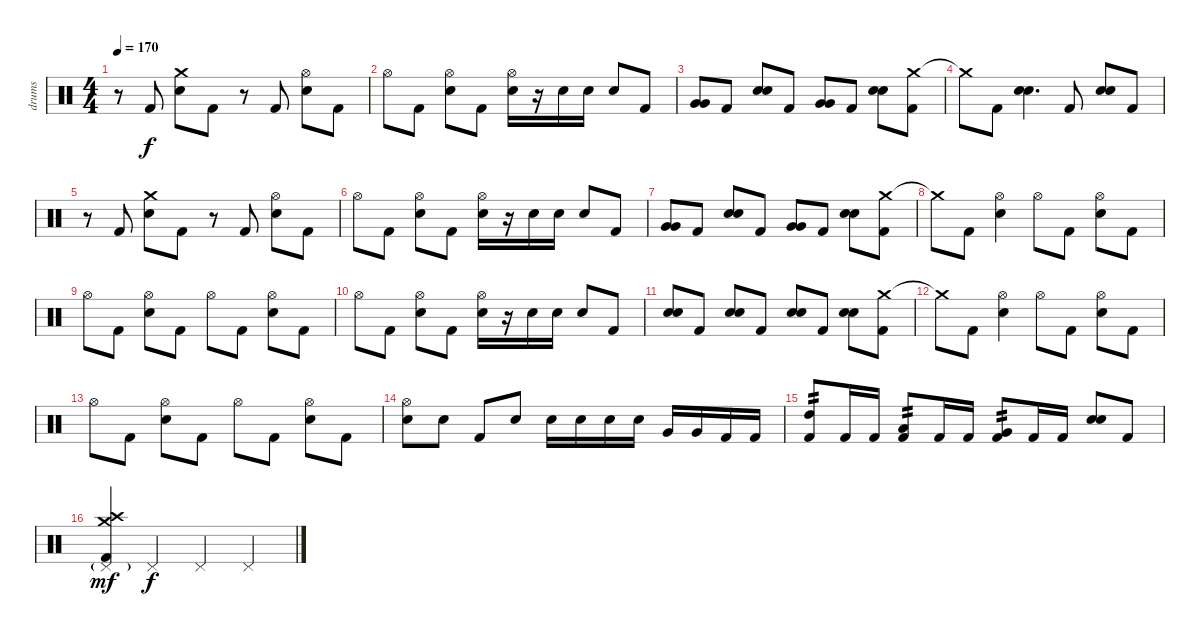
\track ("drums" "drums") {instrument percussion}
\staff {score}
\articulation defaults
\ts (4 4)
\tempo 170
\clef neutral
\ks c
r.8{dy f} "Kick (hit) 2".8 ("Crash medium (hit)" "Electric Snare (hit)").8 "Kick (hit) 2".8 r.8 "Kick (hit) 2".8 ("Hi-Hat (open)" "Electric Snare (hit)").8 "Kick (hit) 2".8 |
"Hi-Hat (open)".8 "Kick (hit) 2".8 ("Hi-Hat (open)" "Electric Snare (hit)").8 "Kick (hit) 2".8 ("Hi-Hat (open)" "Electric Snare (hit)").16 r.16 "Electric Snare (hit)".16 "Electric Snare (hit)".16 "Electric Snare (hit)".8 "Kick (hit) 2".8 |
("Very Low Tom (hit)" "Very Low Tom (hit)").8 "Kick (hit) 2".8 ("Electric Snare (hit)" "Electric Snare (hit)").8 "Kick (hit) 2".8 ("Very Low Tom (hit)" "Very Low Tom (hit)").8 "Kick (hit) 2".8 ("Electric Snare (hit)" "Electric Snare (hit)").8 ("Crash medium (hit)" "Kick (hit) 2").8 |
"Crash medium (hit)"{t}.8 "Kick (hit) 2".8 ("Electric Snare (hit)" "Electric Snare (hit)").4{d} "Kick (hit) 2".8 ("Electric Snare (hit)" "Electric Snare (hit)").8 "Kick (hit) 2".8 |
r.8 "Kick (hit) 2".8 ("Crash medium (hit)" "Electric Snare (hit)").8 "Kick (hit) 2".8 r.8 "Kick (hit) 2".8 ("Hi-Hat (open)" "Electric Snare (hit)").8 "Kick (hit) 2".8 |
"Hi-Hat (open)".8 "Kick (hit) 2".8 ("Hi-Hat (open)" "Electric Snare (hit)").8 "Kick (hit) 2".8 ("Hi-Hat (open)" "Electric Snare (hit)").16 r.16 "Electric Snare (hit)".16 "Electric Snare (hit)".16 "Electric Snare (hit)".8 "Kick (hit) 2".8 |
("Very Low Tom (hit)" "Very Low Tom (hit)").8 "Kick (hit) 2".8 ("Electric Snare (hit)" "Electric Snare (hit)").8 "Kick (hit) 2".8 ("Very Low Tom (hit)" "Very Low Tom (hit)").8 "Kick (hit) 2".8 ("Electric Snare (hit)" "Electric Snare (hit)").8 ("Crash medium (hit)" "Kick (hit) 2").8 |
"Crash medium (hit)"{t}.8 "Kick (hit) 2".8 ("Hi-Hat (open)" "Electric Snare (hit)").4 "Hi-Hat (open)".8 "Kick (hit) 2".8 ("Hi-Hat (open)" "Electric Snare (hit)").8 "Kick (hit) 2".8 |
"Hi-Hat (open)".8 "Kick (hit) 2".8 ("Hi-Hat (open)" "Electric Snare (hit)").8 "Kick (hit) 2".8 "Hi-Hat (open)".8 "Kick (hit) 2".8 ("Hi-Hat (open)" "Electric Snare (hit)").8 "Kick (hit) 2".8 |
"Hi-Hat (open)".8 "Kick (hit) 2".8 ("Hi-Hat (open)" "Electric Snare (hit)").8 "Kick (hit) 2".8 ("Hi-Hat (open)" "Electric Snare (hit)").16 r.16 "Electric Snare (hit)".16 "Electric Snare (hit)".16 "Electric Snare (hit)".8 "Kick (hit) 2".8 |
("Electric Snare (hit)" "Electric Snare (hit)").8 "Kick (hit) 2".8 ("Electric Snare (hit)" "Electric Snare (hit)").8 "Kick (hit) 2".8 ("Electric Snare (hit)" "Electric Snare (hit)").8 "Kick (hit) 2".8 ("Electric Snare (hit)" "Electric Snare (hit)").8 ("Crash medium (hit)" "Kick (hit) 2").8 |
"Crash medium (hit)"{t}.8 "Kick (hit) 2".8 ("Hi-Hat (open)" "Electric Snare (hit)").4 "Hi-Hat (open)".8 "Kick (hit) 2".8 ("Hi-Hat (open)" "Electric Snare (hit)").8 "Kick (hit) 2".8 |
"Hi-Hat (open)".8 "Kick (hit) 2".8 ("Hi-Hat (open)" "Electric Snare (hit)").8 "Kick (hit) 2".8 "Hi-Hat (open)".8 "Kick (hit) 2".8 ("Hi-Hat (open)" "Electric Snare (hit)").8 "Kick (hit) 2".8 |
("Hi-Hat (open)" "Electric Snare (hit)").8 "Electric Snare (hit)".8 "Kick (hit) 2".8 "Electric Snare (hit)".8 "Electric Snare (hit)".16 "Electric Snare (hit)".16 "Electric Snare (hit)".16 "Electric Snare (hit)".16 "Very Low Tom (hit)".16 "Very Low Tom (hit)".16 "Kick (hit) 2".16 "Kick (hit) 2".16 |
("High Tom (hit)" "Kick (hit) 2").8{tp 2} "Kick (hit) 2".16 "Kick (hit) 2".16 ("Low Tom (hit)" "Kick (hit) 2").8{tp 2} "Kick (hit) 2".16 "Kick (hit) 2".16 ("Very Low Tom (hit)" "Kick (hit) 2").8{tp 2} "Kick (hit) 2".16 "Kick (hit) 2".16 ("Electric Snare (hit)" "Electric Snare (hit)").8 "Kick (hit) 2".8 |
("Crash medium (hit)" "Crash high (hit)" "Pedal Hi-Hat (hit)"{g} "Kick (hit) 2").4{dy mf} "Pedal Hi-Hat (hit)".4{dy f} "Pedal Hi-Hat (hit)".4 "Pedal Hi-Hat (hit)".4
